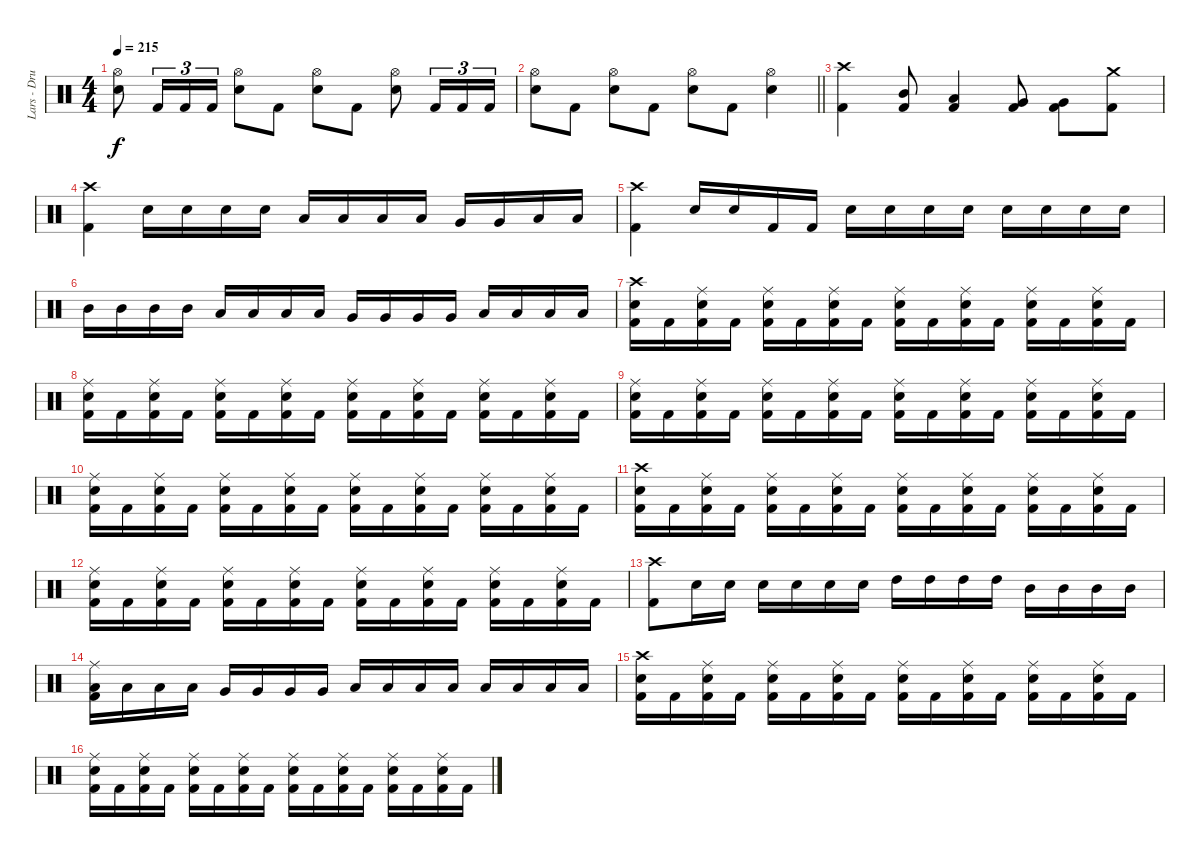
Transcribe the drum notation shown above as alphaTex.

\track ("Lars - Drums" "Lars - Dru") {instrument percussion}
\staff {score}
\articulation defaults
\ts (4 4)
\tempo 215
\clef neutral
\ks c
("Electric Snare (hit)" "Hi-Hat (open)").8{dy f} "Kick (hit) 2".16{tu (3 2)} "Kick (hit) 2".16{tu (3 2)} "Kick (hit) 2".16{tu (3 2)} ("Electric Snare (hit)" "Hi-Hat (open)").8 "Kick (hit) 2".8 ("Electric Snare (hit)" "Hi-Hat (open)").8 "Kick (hit) 2".8 ("Electric Snare (hit)" "Hi-Hat (open)").8 "Kick (hit) 2".16{tu (3 2)} "Kick (hit) 2".16{tu (3 2)} "Kick (hit) 2".16{tu (3 2)} |
\barLineRight lightlight
("Electric Snare (hit)" "Hi-Hat (open)").8 "Kick (hit) 2".8 ("Electric Snare (hit)" "Hi-Hat (open)").8 "Kick (hit) 2".8 ("Electric Snare (hit)" "Hi-Hat (open)").8 "Kick (hit) 2".8 ("Electric Snare (hit)" "Hi-Hat (open)").4 |
\section ("" "")
("Kick (hit) 2" "Crash high (hit)").4 ("Kick (hit) 2" "Mid Tom (hit)").8 ("Kick (hit) 2" "Low Tom (hit)").4 ("Kick (hit) 2" "Very Low Tom (hit)").8 ("Kick (hit) 2" "Very Low Tom (hit)").8 ("Kick (hit) 2" "Crash medium (hit)").8 |
("Kick (hit) 2" "Crash high (hit)").4 "Electric Snare (hit)".16 "Electric Snare (hit)".16 "Electric Snare (hit)".16 "Electric Snare (hit)".16 "Low Tom (hit)".16 "Low Tom (hit)".16 "Low Tom (hit)".16 "Low Tom (hit)".16 "Very Low Tom (hit)".16 "Very Low Tom (hit)".16 "Low Floor Tom (hit)".16 "Low Floor Tom (hit)".16 |
("Kick (hit) 2" "Crash high (hit)").4 "Electric Snare (hit)".16 "Electric Snare (hit)".16 "Kick (hit) 2".16 "Kick (hit) 2".16 "Electric Snare (hit)".16 "Electric Snare (hit)".16 "Electric Snare (hit)".16 "Electric Snare (hit)".16 "Electric Snare (hit)".16 "Electric Snare (hit)".16 "Electric Snare (hit)".16 "Electric Snare (hit)".16 |
"Mid Tom (hit)".16 "Mid Tom (hit)".16 "Mid Tom (hit)".16 "Mid Tom (hit)".16 "Low Tom (hit)".16 "Low Tom (hit)".16 "Low Tom (hit)".16 "Low Tom (hit)".16 "Very Low Tom (hit)".16 "Very Low Tom (hit)".16 "Very Low Tom (hit)".16 "Very Low Tom (hit)".16 "Low Floor Tom (hit)".16 "Low Floor Tom (hit)".16 "Low Floor Tom (hit)".16 "Low Floor Tom (hit)".16 |
("Kick (hit) 2" "Electric Snare (hit)" "Crash high (hit)").16 "Kick (hit) 2".16 ("Kick (hit) 2" "Electric Snare (hit)" "Ride (middle)").16 "Kick (hit) 2".16 ("Kick (hit) 2" "Electric Snare (hit)" "Ride (middle)").16 "Kick (hit) 2".16 ("Kick (hit) 2" "Electric Snare (hit)" "Ride (middle)").16 "Kick (hit) 2".16 ("Kick (hit) 2" "Electric Snare (hit)" "Ride (middle)").16 "Kick (hit) 2".16 ("Kick (hit) 2" "Electric Snare (hit)" "Ride (middle)").16 "Kick (hit) 2".16 ("Kick (hit) 2" "Electric Snare (hit)" "Ride (middle)").16 "Kick (hit) 2".16 ("Kick (hit) 2" "Electric Snare (hit)" "Ride (middle)").16 "Kick (hit) 2".16 |
("Kick (hit) 2" "Electric Snare (hit)" "Ride (middle)").16 "Kick (hit) 2".16 ("Kick (hit) 2" "Electric Snare (hit)" "Ride (middle)").16 "Kick (hit) 2".16 ("Kick (hit) 2" "Electric Snare (hit)" "Ride (middle)").16 "Kick (hit) 2".16 ("Kick (hit) 2" "Electric Snare (hit)" "Ride (middle)").16 "Kick (hit) 2".16 ("Kick (hit) 2" "Electric Snare (hit)" "Ride (middle)").16 "Kick (hit) 2".16 ("Kick (hit) 2" "Electric Snare (hit)" "Ride (middle)").16 "Kick (hit) 2".16 ("Kick (hit) 2" "Electric Snare (hit)" "Ride (middle)").16 "Kick (hit) 2".16 ("Kick (hit) 2" "Electric Snare (hit)" "Ride (middle)").16 "Kick (hit) 2".16 |
("Kick (hit) 2" "Electric Snare (hit)" "Ride (middle)").16 "Kick (hit) 2".16 ("Kick (hit) 2" "Electric Snare (hit)" "Ride (middle)").16 "Kick (hit) 2".16 ("Kick (hit) 2" "Electric Snare (hit)" "Ride (middle)").16 "Kick (hit) 2".16 ("Kick (hit) 2" "Electric Snare (hit)" "Ride (middle)").16 "Kick (hit) 2".16 ("Kick (hit) 2" "Electric Snare (hit)" "Ride (middle)").16 "Kick (hit) 2".16 ("Kick (hit) 2" "Electric Snare (hit)" "Ride (middle)").16 "Kick (hit) 2".16 ("Kick (hit) 2" "Electric Snare (hit)" "Ride (middle)").16 "Kick (hit) 2".16 ("Kick (hit) 2" "Electric Snare (hit)" "Ride (middle)").16 "Kick (hit) 2".16 |
("Kick (hit) 2" "Electric Snare (hit)" "Ride (middle)").16 "Kick (hit) 2".16 ("Kick (hit) 2" "Electric Snare (hit)" "Ride (middle)").16 "Kick (hit) 2".16 ("Kick (hit) 2" "Electric Snare (hit)" "Ride (middle)").16 "Kick (hit) 2".16 ("Kick (hit) 2" "Electric Snare (hit)" "Ride (middle)").16 "Kick (hit) 2".16 ("Kick (hit) 2" "Electric Snare (hit)" "Ride (middle)").16 "Kick (hit) 2".16 ("Kick (hit) 2" "Electric Snare (hit)" "Ride (middle)").16 "Kick (hit) 2".16 ("Kick (hit) 2" "Electric Snare (hit)" "Ride (middle)").16 "Kick (hit) 2".16 ("Kick (hit) 2" "Electric Snare (hit)" "Ride (middle)").16 "Kick (hit) 2".16 |
("Kick (hit) 2" "Electric Snare (hit)" "Crash high (hit)").16 "Kick (hit) 2".16 ("Kick (hit) 2" "Electric Snare (hit)" "Ride (middle)").16 "Kick (hit) 2".16 ("Kick (hit) 2" "Electric Snare (hit)" "Ride (middle)").16 "Kick (hit) 2".16 ("Kick (hit) 2" "Electric Snare (hit)" "Ride (middle)").16 "Kick (hit) 2".16 ("Kick (hit) 2" "Electric Snare (hit)" "Ride (middle)").16 "Kick (hit) 2".16 ("Kick (hit) 2" "Electric Snare (hit)" "Ride (middle)").16 "Kick (hit) 2".16 ("Kick (hit) 2" "Electric Snare (hit)" "Ride (middle)").16 "Kick (hit) 2".16 ("Kick (hit) 2" "Electric Snare (hit)" "Ride (middle)").16 "Kick (hit) 2".16 |
("Kick (hit) 2" "Electric Snare (hit)" "Ride (middle)").16 "Kick (hit) 2".16 ("Kick (hit) 2" "Electric Snare (hit)" "Ride (middle)").16 "Kick (hit) 2".16 ("Kick (hit) 2" "Electric Snare (hit)" "Ride (middle)").16 "Kick (hit) 2".16 ("Kick (hit) 2" "Electric Snare (hit)" "Ride (middle)").16 "Kick (hit) 2".16 ("Kick (hit) 2" "Electric Snare (hit)" "Ride (middle)").16 "Kick (hit) 2".16 ("Kick (hit) 2" "Electric Snare (hit)" "Ride (middle)").16 "Kick (hit) 2".16 ("Kick (hit) 2" "Electric Snare (hit)" "Ride (middle)").16 "Kick (hit) 2".16 ("Kick (hit) 2" "Electric Snare (hit)" "Ride (middle)").16 "Kick (hit) 2".16 |
("Kick (hit) 2" "Crash high (hit)").8 "Electric Snare (hit)".16 "Electric Snare (hit)".16 "Electric Snare (hit)".16 "Electric Snare (hit)".16 "Electric Snare (hit)".16 "Electric Snare (hit)".16 "High Tom (hit)".16 "High Tom (hit)".16 "High Tom (hit)".16 "High Tom (hit)".16 "Mid Tom (hit)".16 "Mid Tom (hit)".16 "Mid Tom (hit)".16 "Mid Tom (hit)".16 |
("Low Tom (hit)" "Kick (hit) 2" "Ride (middle)").16 "Low Tom (hit)".16 "Low Tom (hit)".16 "Low Tom (hit)".16 "Very Low Tom (hit)".16 "Very Low Tom (hit)".16 "Very Low Tom (hit)".16 "Very Low Tom (hit)".16 "Low Floor Tom (hit)".16 "Low Floor Tom (hit)".16 "Low Floor Tom (hit)".16 "Low Floor Tom (hit)".16 "Low Floor Tom (hit)".16 "Low Floor Tom (hit)".16 "Low Floor Tom (hit)".16 "Low Floor Tom (hit)".16 |
("Kick (hit) 2" "Electric Snare (hit)" "Crash high (hit)").16 "Kick (hit) 2".16 ("Kick (hit) 2" "Electric Snare (hit)" "Ride (middle)").16 "Kick (hit) 2".16 ("Kick (hit) 2" "Electric Snare (hit)" "Ride (middle)").16 "Kick (hit) 2".16 ("Kick (hit) 2" "Electric Snare (hit)" "Ride (middle)").16 "Kick (hit) 2".16 ("Kick (hit) 2" "Electric Snare (hit)" "Ride (middle)").16 "Kick (hit) 2".16 ("Kick (hit) 2" "Electric Snare (hit)" "Ride (middle)").16 "Kick (hit) 2".16 ("Kick (hit) 2" "Electric Snare (hit)" "Ride (middle)").16 "Kick (hit) 2".16 ("Kick (hit) 2" "Electric Snare (hit)" "Ride (middle)").16 "Kick (hit) 2".16 |
("Kick (hit) 2" "Electric Snare (hit)" "Ride (middle)").16 "Kick (hit) 2".16 ("Kick (hit) 2" "Electric Snare (hit)" "Ride (middle)").16 "Kick (hit) 2".16 ("Kick (hit) 2" "Electric Snare (hit)" "Ride (middle)").16 "Kick (hit) 2".16 ("Kick (hit) 2" "Electric Snare (hit)" "Ride (middle)").16 "Kick (hit) 2".16 ("Kick (hit) 2" "Electric Snare (hit)" "Ride (middle)").16 "Kick (hit) 2".16 ("Kick (hit) 2" "Electric Snare (hit)" "Ride (middle)").16 "Kick (hit) 2".16 ("Kick (hit) 2" "Electric Snare (hit)" "Ride (middle)").16 "Kick (hit) 2".16 ("Kick (hit) 2" "Electric Snare (hit)" "Ride (middle)").16 "Kick (hit) 2".16
